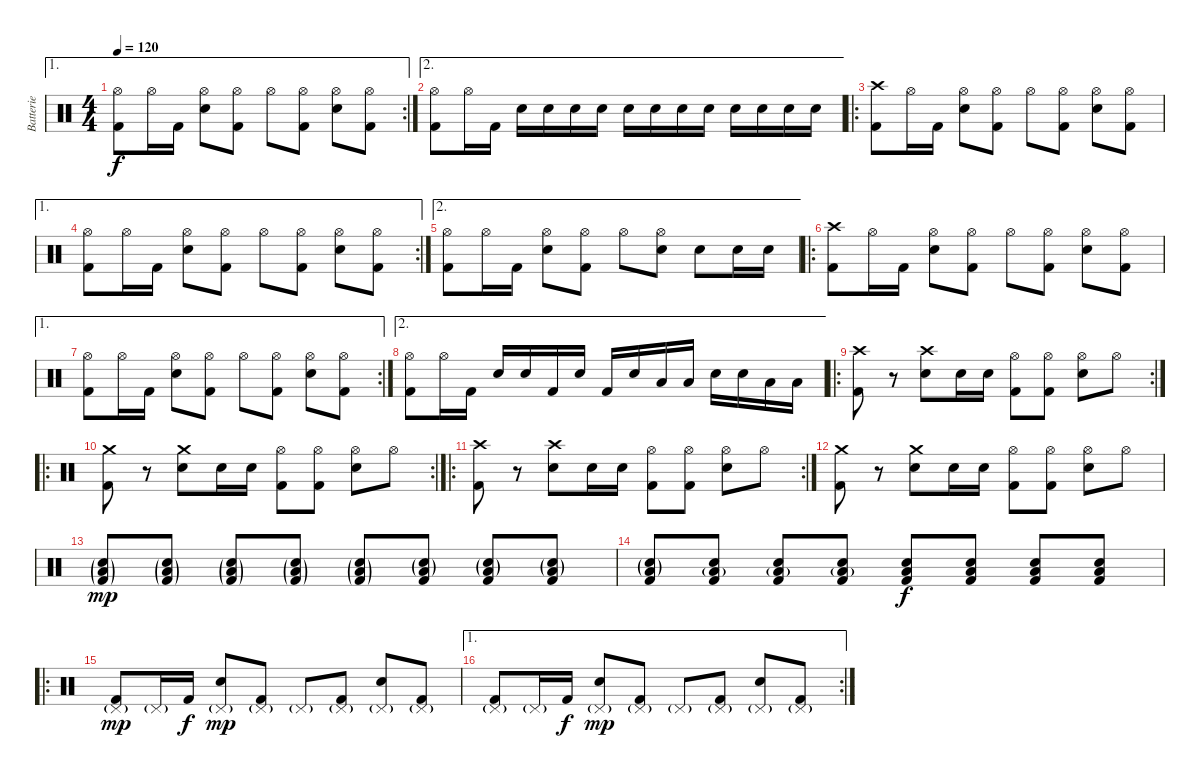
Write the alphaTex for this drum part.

\track ("Batterie" "Batterie") {instrument percussion}
\staff {score}
\articulation defaults
\ae 1
\rc 2
\ts (4 4)
\tempo 120
\clef neutral
\ks c
("Hi-Hat (open)" "Kick (hit) 2").8{dy f} "Hi-Hat (open)".16 "Kick (hit) 2".16 ("Hi-Hat (open)" "Snare (hit) 2").8 ("Hi-Hat (open)" "Kick (hit) 2").8 "Hi-Hat (open)".8 ("Hi-Hat (open)" "Kick (hit) 2").8 ("Hi-Hat (open)" "Snare (hit) 2").8 ("Hi-Hat (open)" "Kick (hit) 2").8 |
\ae 2
("Hi-Hat (open)" "Kick (hit) 2").8 "Hi-Hat (open)".16 "Kick (hit) 2".16 "Snare (hit) 2".16 "Snare (hit) 2".16 "Snare (hit) 2".16 "Snare (hit) 2".16 "Snare (hit) 2".16 "Snare (hit) 2".16 "Snare (hit) 2".16 "Snare (hit) 2".16 "Snare (hit) 2".16 "Snare (hit) 2".16 "Snare (hit) 2".16 "Snare (hit) 2".16 |
\ro
("Crash high (hit)" "Kick (hit) 2").8 "Hi-Hat (open)".16 "Kick (hit) 2".16 ("Hi-Hat (open)" "Snare (hit) 2").8 ("Hi-Hat (open)" "Kick (hit) 2").8 "Hi-Hat (open)".8 ("Hi-Hat (open)" "Kick (hit) 2").8 ("Hi-Hat (open)" "Snare (hit) 2").8 ("Hi-Hat (open)" "Kick (hit) 2").8 |
\ae 1
\rc 2
("Hi-Hat (open)" "Kick (hit) 2").8 "Hi-Hat (open)".16 "Kick (hit) 2".16 ("Hi-Hat (open)" "Snare (hit) 2").8 ("Hi-Hat (open)" "Kick (hit) 2").8 "Hi-Hat (open)".8 ("Hi-Hat (open)" "Kick (hit) 2").8 ("Hi-Hat (open)" "Snare (hit) 2").8 ("Hi-Hat (open)" "Kick (hit) 2").8 |
\ae 2
("Hi-Hat (open)" "Kick (hit) 2").8 "Hi-Hat (open)".16 "Kick (hit) 2".16 ("Hi-Hat (open)" "Snare (hit) 2").8 ("Hi-Hat (open)" "Kick (hit) 2").8 "Hi-Hat (open)".8 ("Hi-Hat (open)" "Snare (hit) 2").8 "Snare (hit) 2".8 "Snare (hit) 2".16 "Snare (hit) 2".16 |
\ro
("Crash high (hit)" "Kick (hit) 2").8 "Hi-Hat (open)".16 "Kick (hit) 2".16 ("Hi-Hat (open)" "Snare (hit) 2").8 ("Hi-Hat (open)" "Kick (hit) 2").8 "Hi-Hat (open)".8 ("Hi-Hat (open)" "Kick (hit) 2").8 ("Hi-Hat (open)" "Snare (hit) 2").8 ("Hi-Hat (open)" "Kick (hit) 2").8 |
\ae 1
\rc 2
("Hi-Hat (open)" "Kick (hit) 2").8 "Hi-Hat (open)".16 "Kick (hit) 2".16 ("Hi-Hat (open)" "Snare (hit) 2").8 ("Hi-Hat (open)" "Kick (hit) 2").8 "Hi-Hat (open)".8 ("Hi-Hat (open)" "Kick (hit) 2").8 ("Hi-Hat (open)" "Snare (hit) 2").8 ("Hi-Hat (open)" "Kick (hit) 2").8 |
\ae 2
("Hi-Hat (open)" "Kick (hit) 2").8 "Hi-Hat (open)".16 "Kick (hit) 2".16 "Snare (hit) 2".16 "Snare (hit) 2".16 "Kick (hit) 2".16 "Snare (hit) 2".16 "Kick (hit) 2".16 "Snare (hit) 2".16 "Low Floor Tom (hit)".16 "Low Floor Tom (hit)".16 "Snare (hit) 2".16 "Snare (hit) 2".16 "Low Floor Tom (hit)".16 "Low Floor Tom (hit)".16 |
\ro
\rc 2
("Crash high (hit)" "Kick (hit) 2").8 r.8 ("Crash high (hit)" "Snare (hit) 2").8 "Snare (hit) 2".16 "Snare (hit) 2".16 ("Hi-Hat (open)" "Kick (hit) 2").8 ("Hi-Hat (open)" "Kick (hit) 2").8 ("Hi-Hat (open)" "Snare (hit) 2").8 "Hi-Hat (open)".8 |
\ro
\rc 2
("Crash medium (hit)" "Kick (hit) 2").8 r.8 ("Crash medium (hit)" "Snare (hit) 2").8 "Snare (hit) 2".16 "Snare (hit) 2".16 ("Hi-Hat (open)" "Kick (hit) 2").8 ("Hi-Hat (open)" "Kick (hit) 2").8 ("Hi-Hat (open)" "Snare (hit) 2").8 "Hi-Hat (open)".8 |
\ro
\rc 2
("Crash high (hit)" "Kick (hit) 2").8 r.8 ("Crash high (hit)" "Snare (hit) 2").8 "Snare (hit) 2".16 "Snare (hit) 2".16 ("Hi-Hat (open)" "Kick (hit) 2").8 ("Hi-Hat (open)" "Kick (hit) 2").8 ("Hi-Hat (open)" "Snare (hit) 2").8 "Hi-Hat (open)".8 |
("Crash medium (hit)" "Kick (hit) 2").8 r.8 ("Crash medium (hit)" "Snare (hit) 2").8 "Snare (hit) 2".16 "Snare (hit) 2".16 ("Hi-Hat (open)" "Kick (hit) 2").8 ("Hi-Hat (open)" "Kick (hit) 2").8 ("Hi-Hat (open)" "Snare (hit) 2").8 "Hi-Hat (open)".8 |
("Low Tom (hit)"{g} "Snare (hit) 2"{g} "Kick (hit) 2"{g}).8{dy mp} ("Low Tom (hit)"{g} "Snare (hit) 2"{g} "Kick (hit) 2"{g}).8 ("Low Tom (hit)"{g} "Snare (hit) 2"{g} "Kick (hit) 2"{g}).8 ("Low Tom (hit)"{g} "Snare (hit) 2"{g} "Kick (hit) 2"{g}).8 ("Low Tom (hit)"{g} "Snare (hit) 2"{g} "Kick (hit) 2"{g}).8 ("Low Tom (hit)"{g} "Snare (hit) 2"{g} "Kick (hit) 2").8 ("Low Tom (hit)"{g} "Snare (hit) 2"{g} "Kick (hit) 2").8 ("Low Tom (hit)"{g} "Snare (hit) 2"{g} "Kick (hit) 2").8 |
("Low Tom (hit)"{g} "Snare (hit) 2"{g} "Kick (hit) 2").8 ("Low Tom (hit)"{g} "Snare (hit) 2" "Kick (hit) 2").8 ("Low Tom (hit)"{g} "Snare (hit) 2" "Kick (hit) 2").8 ("Low Tom (hit)"{g} "Snare (hit) 2" "Kick (hit) 2").8 ("Low Tom (hit)" "Snare (hit) 2" "Kick (hit) 2").8{dy f} ("Low Tom (hit)" "Snare (hit) 2" "Kick (hit) 2").8 ("Low Tom (hit)" "Snare (hit) 2" "Kick (hit) 2").8 ("Low Tom (hit)" "Snare (hit) 2" "Kick (hit) 2").8 |
\ro
("Pedal Hi-Hat (hit)"{g} "Kick (hit) 2").8{dy mp} "Pedal Hi-Hat (hit)"{g}.16 "Kick (hit) 2".16{dy f} ("Pedal Hi-Hat (hit)"{g} "Snare (hit) 2").8{dy mp} ("Pedal Hi-Hat (hit)"{g} "Kick (hit) 2").8 "Pedal Hi-Hat (hit)"{g}.8 ("Pedal Hi-Hat (hit)"{g} "Kick (hit) 2").8 ("Pedal Hi-Hat (hit)"{g} "Snare (hit) 2").8 ("Pedal Hi-Hat (hit)"{g} "Kick (hit) 2").8 |
\ae 1
\rc 2
("Pedal Hi-Hat (hit)"{g} "Kick (hit) 2").8 "Pedal Hi-Hat (hit)"{g}.16 "Kick (hit) 2".16{dy f} ("Pedal Hi-Hat (hit)"{g} "Snare (hit) 2").8{dy mp} ("Pedal Hi-Hat (hit)"{g} "Kick (hit) 2").8 "Pedal Hi-Hat (hit)"{g}.8 ("Pedal Hi-Hat (hit)"{g} "Kick (hit) 2").8 ("Pedal Hi-Hat (hit)"{g} "Snare (hit) 2").8 ("Pedal Hi-Hat (hit)"{g} "Kick (hit) 2").8
